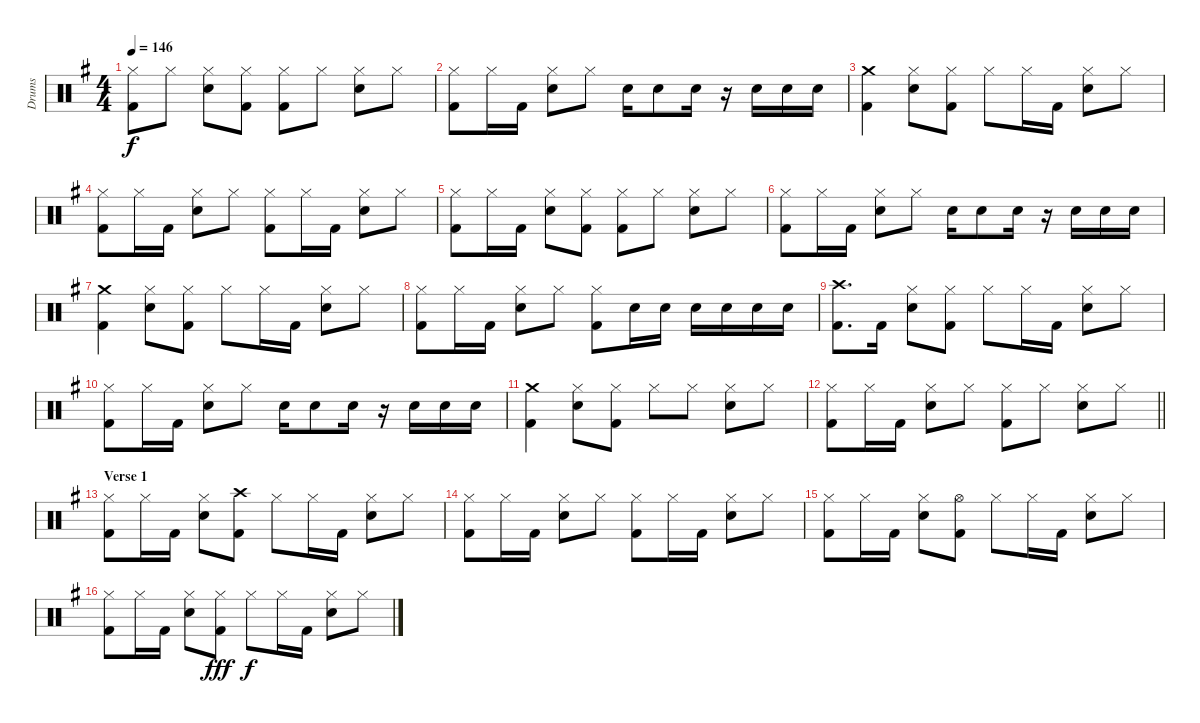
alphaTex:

\track ("Drums" "Drums") {instrument percussion}
\staff {score}
\articulation defaults
\ts (4 4)
\tempo 146
\clef neutral
\ks g
("Kick (hit) 2" "Hi-Hat (closed)").8{dy f} "Hi-Hat (closed)".8 ("Snare (hit) 2" "Hi-Hat (closed)").8 ("Kick (hit) 2" "Hi-Hat (closed)").8 ("Kick (hit) 2" "Hi-Hat (closed)").8 "Hi-Hat (closed)".8 ("Snare (hit) 2" "Hi-Hat (closed)").8 "Hi-Hat (closed)".8 |
("Kick (hit) 2" "Hi-Hat (closed)").8 "Hi-Hat (closed)".16 "Kick (hit) 2".16 ("Snare (hit) 2" "Hi-Hat (closed)").8 "Hi-Hat (closed)".8 "Snare (hit) 2".16 "Snare (hit) 2".8 "Snare (hit) 2".16 r.16 "Snare (hit) 2".16 "Snare (hit) 2".16 "Snare (hit) 2".16 |
("Kick (hit) 2" "Crash medium (hit)").4 ("Snare (hit) 2" "Hi-Hat (closed)").8 ("Kick (hit) 2" "Hi-Hat (closed)").8 "Hi-Hat (closed)".8 "Hi-Hat (closed)".16 "Kick (hit) 2".16 ("Snare (hit) 2" "Hi-Hat (closed)").8 "Hi-Hat (closed)".8 |
("Kick (hit) 2" "Hi-Hat (closed)").8 "Hi-Hat (closed)".16 "Kick (hit) 2".16 ("Snare (hit) 2" "Hi-Hat (closed)").8 "Hi-Hat (closed)".8 ("Kick (hit) 2" "Hi-Hat (closed)").8 "Hi-Hat (closed)".16 "Kick (hit) 2".16 ("Snare (hit) 2" "Hi-Hat (closed)").8 "Hi-Hat (closed)".8 |
("Kick (hit) 2" "Hi-Hat (closed)").8 "Hi-Hat (closed)".16 "Kick (hit) 2".16 ("Snare (hit) 2" "Hi-Hat (closed)").8 ("Kick (hit) 2" "Hi-Hat (closed)").8 ("Kick (hit) 2" "Hi-Hat (closed)").8 "Hi-Hat (closed)".8 ("Snare (hit) 2" "Hi-Hat (closed)").8 "Hi-Hat (closed)".8 |
("Kick (hit) 2" "Hi-Hat (closed)").8 "Hi-Hat (closed)".16 "Kick (hit) 2".16 ("Snare (hit) 2" "Hi-Hat (closed)").8 "Hi-Hat (closed)".8 "Snare (hit) 2".16 "Snare (hit) 2".8 "Snare (hit) 2".16 r.16 "Snare (hit) 2".16 "Snare (hit) 2".16 "Snare (hit) 2".16 |
("Kick (hit) 2" "Crash medium (hit)").4 ("Snare (hit) 2" "Hi-Hat (closed)").8 ("Kick (hit) 2" "Hi-Hat (closed)").8 "Hi-Hat (closed)".8 "Hi-Hat (closed)".16 "Kick (hit) 2".16 ("Snare (hit) 2" "Hi-Hat (closed)").8 "Hi-Hat (closed)".8 |
("Kick (hit) 2" "Hi-Hat (closed)").8 "Hi-Hat (closed)".16 "Kick (hit) 2".16 ("Snare (hit) 2" "Hi-Hat (closed)").8 "Hi-Hat (closed)".8 ("Kick (hit) 2" "Hi-Hat (closed)").8 "Snare (hit) 2".16 "Snare (hit) 2".16 "Snare (hit) 2".16 "Snare (hit) 2".16 "Snare (hit) 2".16 "Snare (hit) 2".16 |
("Kick (hit) 2" "Crash high (hit)").8{d} "Kick (hit) 2".16 ("Snare (hit) 2" "Hi-Hat (closed)").8 ("Kick (hit) 2" "Hi-Hat (closed)").8 "Hi-Hat (closed)".8 "Hi-Hat (closed)".16 "Kick (hit) 2".16 ("Snare (hit) 2" "Hi-Hat (closed)").8 "Hi-Hat (closed)".8 |
("Kick (hit) 2" "Hi-Hat (closed)").8 "Hi-Hat (closed)".16 "Kick (hit) 2".16 ("Snare (hit) 2" "Hi-Hat (closed)").8 "Hi-Hat (closed)".8 "Snare (hit) 2".16 "Snare (hit) 2".8 "Snare (hit) 2".16 r.16 "Snare (hit) 2".16 "Snare (hit) 2".16 "Snare (hit) 2".16 |
("Kick (hit) 2" "Crash medium (hit)").4 ("Snare (hit) 2" "Hi-Hat (closed)").8 ("Kick (hit) 2" "Hi-Hat (closed)").8 "Hi-Hat (closed)".8 "Hi-Hat (closed)".8 ("Snare (hit) 2" "Hi-Hat (closed)").8 "Hi-Hat (closed)".8 |
\barLineRight lightlight
("Kick (hit) 2" "Hi-Hat (closed)").8 "Hi-Hat (closed)".16 "Kick (hit) 2".16 ("Snare (hit) 2" "Hi-Hat (closed)").8 "Hi-Hat (closed)".8 ("Kick (hit) 2" "Hi-Hat (closed)").8 "Hi-Hat (closed)".8 ("Snare (hit) 2" "Hi-Hat (closed)").8 "Hi-Hat (closed)".8 |
\section ("" "Verse 1")
("Kick (hit) 2" "Hi-Hat (closed)").8 "Hi-Hat (closed)".16 "Kick (hit) 2".16 ("Snare (hit) 2" "Hi-Hat (closed)").8 ("Kick (hit) 2" "Crash high (hit)").8 "Hi-Hat (closed)".8 "Hi-Hat (closed)".16 "Kick (hit) 2".16 ("Snare (hit) 2" "Hi-Hat (closed)").8 "Hi-Hat (closed)".8 |
("Kick (hit) 2" "Hi-Hat (closed)").8 "Hi-Hat (closed)".16 "Kick (hit) 2".16 ("Snare (hit) 2" "Hi-Hat (closed)").8 "Hi-Hat (closed)".8 ("Kick (hit) 2" "Hi-Hat (closed)").8 "Hi-Hat (closed)".16 "Kick (hit) 2".16 ("Snare (hit) 2" "Hi-Hat (closed)").8 "Hi-Hat (closed)".8 |
("Kick (hit) 2" "Hi-Hat (closed)").8 "Hi-Hat (closed)".16 "Kick (hit) 2".16 ("Snare (hit) 2" "Hi-Hat (closed)").8 ("Kick (hit) 2" "Hi-Hat (open)").8 "Hi-Hat (closed)".8 "Hi-Hat (closed)".16 "Kick (hit) 2".16 ("Snare (hit) 2" "Hi-Hat (closed)").8 "Hi-Hat (closed)".8 |
("Kick (hit) 2" "Hi-Hat (closed)").8 "Hi-Hat (closed)".16 "Kick (hit) 2".16 ("Snare (hit) 2" "Hi-Hat (closed)").8 ("Kick (hit) 2" "Hi-Hat (closed)").8{dy fff} "Hi-Hat (closed)".8{dy f} "Hi-Hat (closed)".16 "Kick (hit) 2".16 ("Snare (hit) 2" "Hi-Hat (closed)").8 "Hi-Hat (closed)".8
